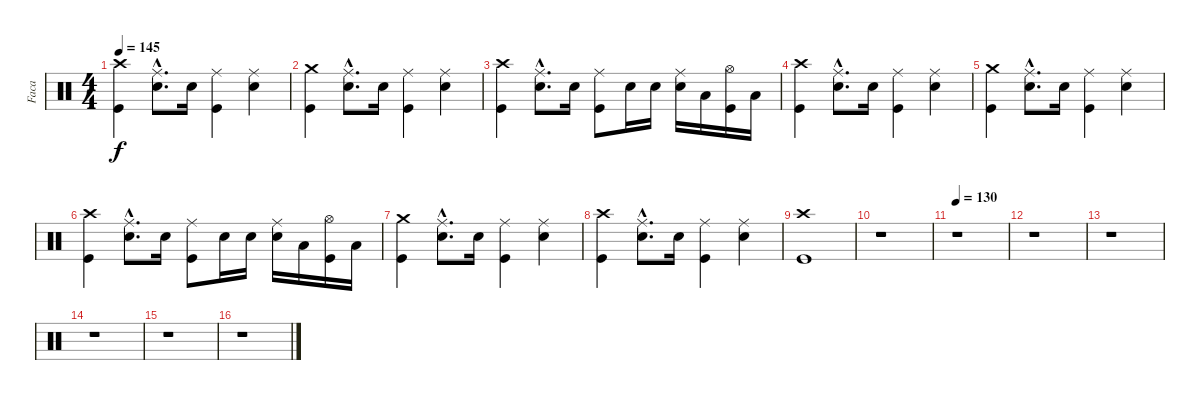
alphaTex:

\track ("Faca" "Faca") {instrument percussion}
\staff {score}
\articulation defaults
\ts (4 4)
\tempo 145
\clef neutral
\ks c
("Crash high (hit)" "Kick (hit)").4{dy f} ("Ride (middle)"{hac} "Snare (hit) 2"{hac}).8{d} "Snare (hit) 2".16 ("Ride (middle)" "Kick (hit)").4 ("Ride (middle)" "Snare (hit) 2").4 |
("Crash medium (hit)" "Kick (hit)").4 ("Ride (middle)"{hac} "Snare (hit) 2"{hac}).8{d} "Snare (hit) 2".16 ("Ride (middle)" "Kick (hit)").4 ("Ride (middle)" "Snare (hit) 2").4 |
("Crash high (hit)" "Kick (hit)").4 ("Ride (middle)"{hac} "Snare (hit) 2"{hac}).8{d} "Snare (hit) 2".16 ("Ride (middle)" "Kick (hit)").8 "Snare (hit) 2".16 "Snare (hit) 2".16 ("Ride (middle)" "Snare (hit) 2").16 "Low Tom (hit)".16 ("Hi-Hat (open)" "Kick (hit)").16 "Low Floor Tom (hit)".16 |
("Crash high (hit)" "Kick (hit)").4 ("Ride (middle)"{hac} "Snare (hit) 2"{hac}).8{d} "Snare (hit) 2".16 ("Ride (middle)" "Kick (hit)").4 ("Ride (middle)" "Snare (hit) 2").4 |
("Crash medium (hit)" "Kick (hit)").4 ("Ride (middle)"{hac} "Snare (hit) 2"{hac}).8{d} "Snare (hit) 2".16 ("Ride (middle)" "Kick (hit)").4 ("Ride (middle)" "Snare (hit) 2").4 |
("Crash high (hit)" "Kick (hit)").4 ("Ride (middle)"{hac} "Snare (hit) 2"{hac}).8{d} "Snare (hit) 2".16 ("Ride (middle)" "Kick (hit)").8 "Snare (hit) 2".16 "Snare (hit) 2".16 ("Ride (middle)" "Snare (hit) 2").16 "Low Tom (hit)".16 ("Hi-Hat (open)" "Kick (hit)").16 "Low Floor Tom (hit)".16 |
("Crash medium (hit)" "Kick (hit)").4 ("Ride (middle)"{hac} "Snare (hit) 2"{hac}).8{d} "Snare (hit) 2".16 ("Ride (middle)" "Kick (hit)").4 ("Ride (middle)" "Snare (hit) 2").4 |
("Crash high (hit)" "Kick (hit)").4 ("Ride (middle)"{hac} "Snare (hit) 2"{hac}).8{d} "Snare (hit) 2".16 ("Ride (middle)" "Kick (hit)").4 ("Ride (middle)" "Snare (hit) 2").4 |
("Crash high (hit)" "Kick (hit)").1 |
r.1 |
\tempo 130
r.1 |
r.1 |
r.1 |
r.1 |
r.1 |
r.1
